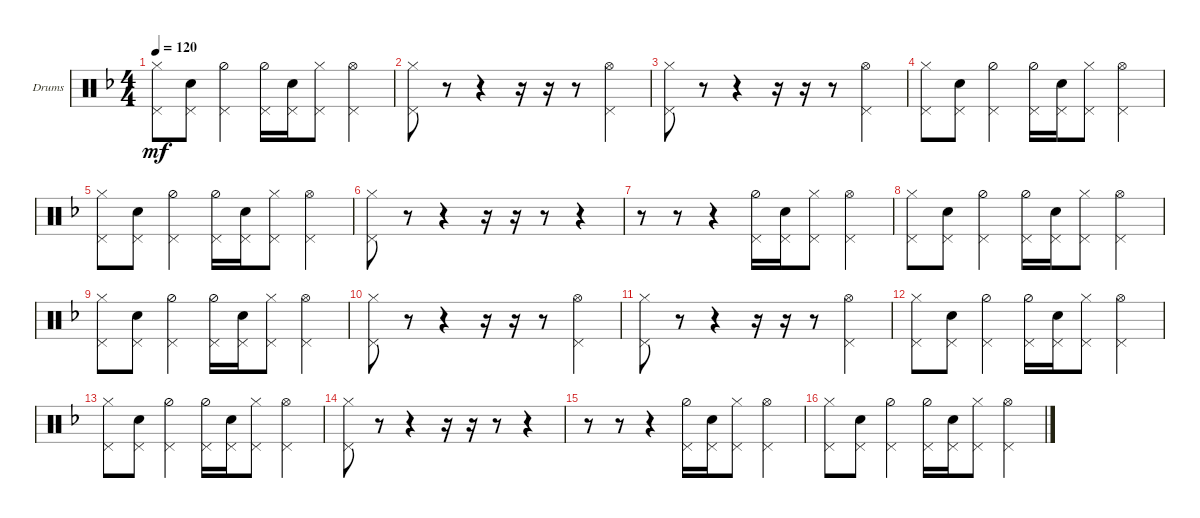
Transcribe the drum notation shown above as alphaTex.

\defaultSystemsLayout 4
\bracketExtendMode groupsimilarinstruments
\firstSystemTrackNameOrientation horizontal
\otherSystemsTrackNameOrientation horizontal
\track ("Drumkit" "Drums") {instrument percussion}
\staff {score}
\articulation defaults
\ts (4 4)
\tempo 120
\clef neutral
\ks f
("Pedal Hi-Hat (hit)" "Hi-Hat (closed)").8{dy mf} ("Pedal Hi-Hat (hit)" "Snare (hit) 2").8 ("Hi-Hat (half)" "Pedal Hi-Hat (hit)").4 ("Hi-Hat (half)" "Pedal Hi-Hat (hit)").16 ("Snare (hit) 2" "Pedal Hi-Hat (hit)").16 ("Hi-Hat (closed)" "Pedal Hi-Hat (hit)").8 ("Hi-Hat (open)" "Pedal Hi-Hat (hit)").4 |
("Pedal Hi-Hat (hit)" "Hi-Hat (closed)").8 r.8 r.4 r.16 r.16 r.8 ("Hi-Hat (open)" "Pedal Hi-Hat (hit)").4 |
("Pedal Hi-Hat (hit)" "Hi-Hat (closed)").8 r.8 r.4 r.16 r.16 r.8 ("Hi-Hat (open)" "Pedal Hi-Hat (hit)").4 |
("Pedal Hi-Hat (hit)" "Hi-Hat (closed)").8 ("Pedal Hi-Hat (hit)" "Snare (hit) 2").8 ("Hi-Hat (half)" "Pedal Hi-Hat (hit)").4 ("Hi-Hat (half)" "Pedal Hi-Hat (hit)").16 ("Snare (hit) 2" "Pedal Hi-Hat (hit)").16 ("Hi-Hat (closed)" "Pedal Hi-Hat (hit)").8 ("Hi-Hat (open)" "Pedal Hi-Hat (hit)").4 |
("Pedal Hi-Hat (hit)" "Hi-Hat (closed)").8 ("Pedal Hi-Hat (hit)" "Snare (hit) 2").8 ("Hi-Hat (half)" "Pedal Hi-Hat (hit)").4 ("Hi-Hat (half)" "Pedal Hi-Hat (hit)").16 ("Snare (hit) 2" "Pedal Hi-Hat (hit)").16 ("Hi-Hat (closed)" "Pedal Hi-Hat (hit)").8 ("Hi-Hat (open)" "Pedal Hi-Hat (hit)").4 |
("Pedal Hi-Hat (hit)" "Hi-Hat (closed)").8 r.8 r.4 r.16 r.16 r.8 r.4 |
r.8 r.8 r.4 ("Hi-Hat (half)" "Pedal Hi-Hat (hit)").16 ("Snare (hit) 2" "Pedal Hi-Hat (hit)").16 ("Hi-Hat (closed)" "Pedal Hi-Hat (hit)").8 ("Hi-Hat (open)" "Pedal Hi-Hat (hit)").4 |
("Pedal Hi-Hat (hit)" "Hi-Hat (closed)").8 ("Pedal Hi-Hat (hit)" "Snare (hit) 2").8 ("Hi-Hat (half)" "Pedal Hi-Hat (hit)").4 ("Hi-Hat (half)" "Pedal Hi-Hat (hit)").16 ("Snare (hit) 2" "Pedal Hi-Hat (hit)").16 ("Hi-Hat (closed)" "Pedal Hi-Hat (hit)").8 ("Hi-Hat (open)" "Pedal Hi-Hat (hit)").4 |
("Pedal Hi-Hat (hit)" "Hi-Hat (closed)").8 ("Pedal Hi-Hat (hit)" "Snare (hit) 2").8 ("Hi-Hat (half)" "Pedal Hi-Hat (hit)").4 ("Hi-Hat (half)" "Pedal Hi-Hat (hit)").16 ("Snare (hit) 2" "Pedal Hi-Hat (hit)").16 ("Hi-Hat (closed)" "Pedal Hi-Hat (hit)").8 ("Hi-Hat (open)" "Pedal Hi-Hat (hit)").4 |
("Pedal Hi-Hat (hit)" "Hi-Hat (closed)").8 r.8 r.4 r.16 r.16 r.8 ("Hi-Hat (open)" "Pedal Hi-Hat (hit)").4 |
("Pedal Hi-Hat (hit)" "Hi-Hat (closed)").8 r.8 r.4 r.16 r.16 r.8 ("Hi-Hat (open)" "Pedal Hi-Hat (hit)").4 |
("Pedal Hi-Hat (hit)" "Hi-Hat (closed)").8 ("Pedal Hi-Hat (hit)" "Snare (hit) 2").8 ("Hi-Hat (half)" "Pedal Hi-Hat (hit)").4 ("Hi-Hat (half)" "Pedal Hi-Hat (hit)").16 ("Snare (hit) 2" "Pedal Hi-Hat (hit)").16 ("Hi-Hat (closed)" "Pedal Hi-Hat (hit)").8 ("Hi-Hat (open)" "Pedal Hi-Hat (hit)").4 |
("Pedal Hi-Hat (hit)" "Hi-Hat (closed)").8 ("Pedal Hi-Hat (hit)" "Snare (hit) 2").8 ("Hi-Hat (half)" "Pedal Hi-Hat (hit)").4 ("Hi-Hat (half)" "Pedal Hi-Hat (hit)").16 ("Snare (hit) 2" "Pedal Hi-Hat (hit)").16 ("Hi-Hat (closed)" "Pedal Hi-Hat (hit)").8 ("Hi-Hat (open)" "Pedal Hi-Hat (hit)").4 |
("Pedal Hi-Hat (hit)" "Hi-Hat (closed)").8 r.8 r.4 r.16 r.16 r.8 r.4 |
r.8 r.8 r.4 ("Hi-Hat (half)" "Pedal Hi-Hat (hit)").16 ("Snare (hit) 2" "Pedal Hi-Hat (hit)").16 ("Hi-Hat (closed)" "Pedal Hi-Hat (hit)").8 ("Hi-Hat (open)" "Pedal Hi-Hat (hit)").4 |
("Pedal Hi-Hat (hit)" "Hi-Hat (closed)").8 ("Pedal Hi-Hat (hit)" "Snare (hit) 2").8 ("Hi-Hat (half)" "Pedal Hi-Hat (hit)").4 ("Hi-Hat (half)" "Pedal Hi-Hat (hit)").16 ("Snare (hit) 2" "Pedal Hi-Hat (hit)").16 ("Hi-Hat (closed)" "Pedal Hi-Hat (hit)").8 ("Hi-Hat (open)" "Pedal Hi-Hat (hit)").4
